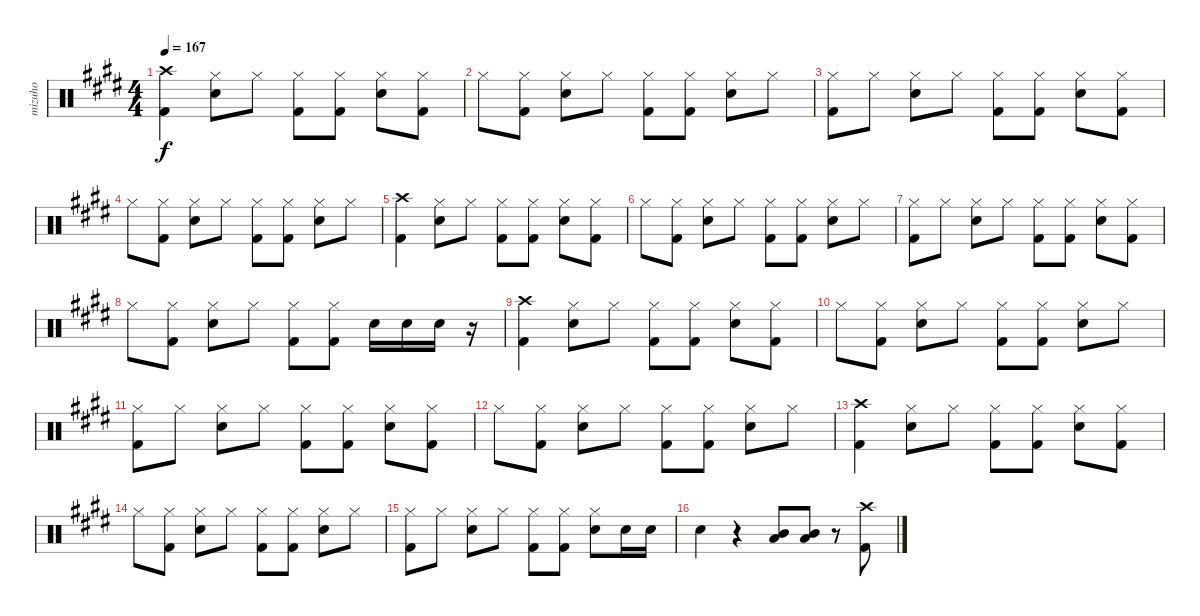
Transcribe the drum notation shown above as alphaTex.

\track ("mizuho" "mizuho") {instrument percussion}
\staff {score}
\articulation defaults
\ts (4 4)
\tempo 167
\clef neutral
\ks c#minor
("Crash high (hit)" "Kick (hit) 2").4{dy f} ("Hi-Hat (closed)" "Electric Snare (hit)").8 "Hi-Hat (closed)".8 ("Hi-Hat (closed)" "Kick (hit) 2").8 ("Hi-Hat (closed)" "Kick (hit) 2").8 ("Hi-Hat (closed)" "Electric Snare (hit)").8 ("Hi-Hat (closed)" "Kick (hit) 2").8 |
"Hi-Hat (closed)".8 ("Hi-Hat (closed)" "Kick (hit) 2").8 ("Hi-Hat (closed)" "Electric Snare (hit)").8 "Hi-Hat (closed)".8 ("Hi-Hat (closed)" "Kick (hit) 2").8 ("Hi-Hat (closed)" "Kick (hit) 2").8 ("Hi-Hat (closed)" "Electric Snare (hit)").8 "Hi-Hat (closed)".8 |
("Hi-Hat (closed)" "Kick (hit) 2").8 "Hi-Hat (closed)".8 ("Hi-Hat (closed)" "Electric Snare (hit)").8 "Hi-Hat (closed)".8 ("Hi-Hat (closed)" "Kick (hit) 2").8 ("Hi-Hat (closed)" "Kick (hit) 2").8 ("Hi-Hat (closed)" "Electric Snare (hit)").8 ("Hi-Hat (closed)" "Kick (hit) 2").8 |
"Hi-Hat (closed)".8 ("Hi-Hat (closed)" "Kick (hit) 2").8 ("Hi-Hat (closed)" "Electric Snare (hit)").8 "Hi-Hat (closed)".8 ("Hi-Hat (closed)" "Kick (hit) 2").8 ("Hi-Hat (closed)" "Kick (hit) 2").8 ("Hi-Hat (closed)" "Electric Snare (hit)").8 "Hi-Hat (closed)".8 |
("Crash high (hit)" "Kick (hit) 2").4 ("Hi-Hat (closed)" "Electric Snare (hit)").8 "Hi-Hat (closed)".8 ("Hi-Hat (closed)" "Kick (hit) 2").8 ("Hi-Hat (closed)" "Kick (hit) 2").8 ("Hi-Hat (closed)" "Electric Snare (hit)").8 ("Hi-Hat (closed)" "Kick (hit) 2").8 |
"Hi-Hat (closed)".8 ("Hi-Hat (closed)" "Kick (hit) 2").8 ("Hi-Hat (closed)" "Electric Snare (hit)").8 "Hi-Hat (closed)".8 ("Hi-Hat (closed)" "Kick (hit) 2").8 ("Hi-Hat (closed)" "Kick (hit) 2").8 ("Hi-Hat (closed)" "Electric Snare (hit)").8 "Hi-Hat (closed)".8 |
("Hi-Hat (closed)" "Kick (hit) 2").8 "Hi-Hat (closed)".8 ("Hi-Hat (closed)" "Electric Snare (hit)").8 "Hi-Hat (closed)".8 ("Hi-Hat (closed)" "Kick (hit) 2").8 ("Hi-Hat (closed)" "Kick (hit) 2").8 ("Hi-Hat (closed)" "Electric Snare (hit)").8 ("Hi-Hat (closed)" "Kick (hit) 2").8 |
"Hi-Hat (closed)".8 ("Hi-Hat (closed)" "Kick (hit) 2").8 ("Hi-Hat (closed)" "Electric Snare (hit)").8 "Hi-Hat (closed)".8 ("Hi-Hat (closed)" "Kick (hit) 2").8 ("Hi-Hat (closed)" "Kick (hit) 2").8 "Snare (hit) 2".16 "Snare (hit) 2".16 "Snare (hit) 2".16 r.16 |
("Crash high (hit)" "Kick (hit) 2").4 ("Hi-Hat (closed)" "Electric Snare (hit)").8 "Hi-Hat (closed)".8 ("Hi-Hat (closed)" "Kick (hit) 2").8 ("Hi-Hat (closed)" "Kick (hit) 2").8 ("Hi-Hat (closed)" "Electric Snare (hit)").8 ("Hi-Hat (closed)" "Kick (hit) 2").8 |
"Hi-Hat (closed)".8 ("Hi-Hat (closed)" "Kick (hit) 2").8 ("Hi-Hat (closed)" "Electric Snare (hit)").8 "Hi-Hat (closed)".8 ("Hi-Hat (closed)" "Kick (hit) 2").8 ("Hi-Hat (closed)" "Kick (hit) 2").8 ("Hi-Hat (closed)" "Electric Snare (hit)").8 "Hi-Hat (closed)".8 |
("Hi-Hat (closed)" "Kick (hit) 2").8 "Hi-Hat (closed)".8 ("Hi-Hat (closed)" "Electric Snare (hit)").8 "Hi-Hat (closed)".8 ("Hi-Hat (closed)" "Kick (hit) 2").8 ("Hi-Hat (closed)" "Kick (hit) 2").8 ("Hi-Hat (closed)" "Electric Snare (hit)").8 ("Hi-Hat (closed)" "Kick (hit) 2").8 |
"Hi-Hat (closed)".8 ("Hi-Hat (closed)" "Kick (hit) 2").8 ("Hi-Hat (closed)" "Electric Snare (hit)").8 "Hi-Hat (closed)".8 ("Hi-Hat (closed)" "Kick (hit) 2").8 ("Hi-Hat (closed)" "Kick (hit) 2").8 ("Hi-Hat (closed)" "Electric Snare (hit)").8 "Hi-Hat (closed)".8 |
("Crash high (hit)" "Kick (hit) 2").4 ("Hi-Hat (closed)" "Electric Snare (hit)").8 "Hi-Hat (closed)".8 ("Hi-Hat (closed)" "Kick (hit) 2").8 ("Hi-Hat (closed)" "Kick (hit) 2").8 ("Hi-Hat (closed)" "Electric Snare (hit)").8 ("Hi-Hat (closed)" "Kick (hit) 2").8 |
"Hi-Hat (closed)".8 ("Hi-Hat (closed)" "Kick (hit) 2").8 ("Hi-Hat (closed)" "Electric Snare (hit)").8 "Hi-Hat (closed)".8 ("Hi-Hat (closed)" "Kick (hit) 2").8 ("Hi-Hat (closed)" "Kick (hit) 2").8 ("Hi-Hat (closed)" "Electric Snare (hit)").8 "Hi-Hat (closed)".8 |
("Hi-Hat (closed)" "Kick (hit) 2").8 "Hi-Hat (closed)".8 ("Hi-Hat (closed)" "Electric Snare (hit)").8 "Hi-Hat (closed)".8 ("Hi-Hat (closed)" "Kick (hit) 2").8 ("Hi-Hat (closed)" "Kick (hit) 2").8 ("Hi-Hat (closed)" "Electric Snare (hit)").8 "Snare (hit) 2".16 "Snare (hit) 2".16 |
"Electric Snare (hit)".4 r.4 ("Mid Tom (hit)" "Low Floor Tom (hit)").8 ("Mid Tom (hit)" "Low Floor Tom (hit)").8 r.8 ("Crash high (hit)" "Kick (hit) 2").8
